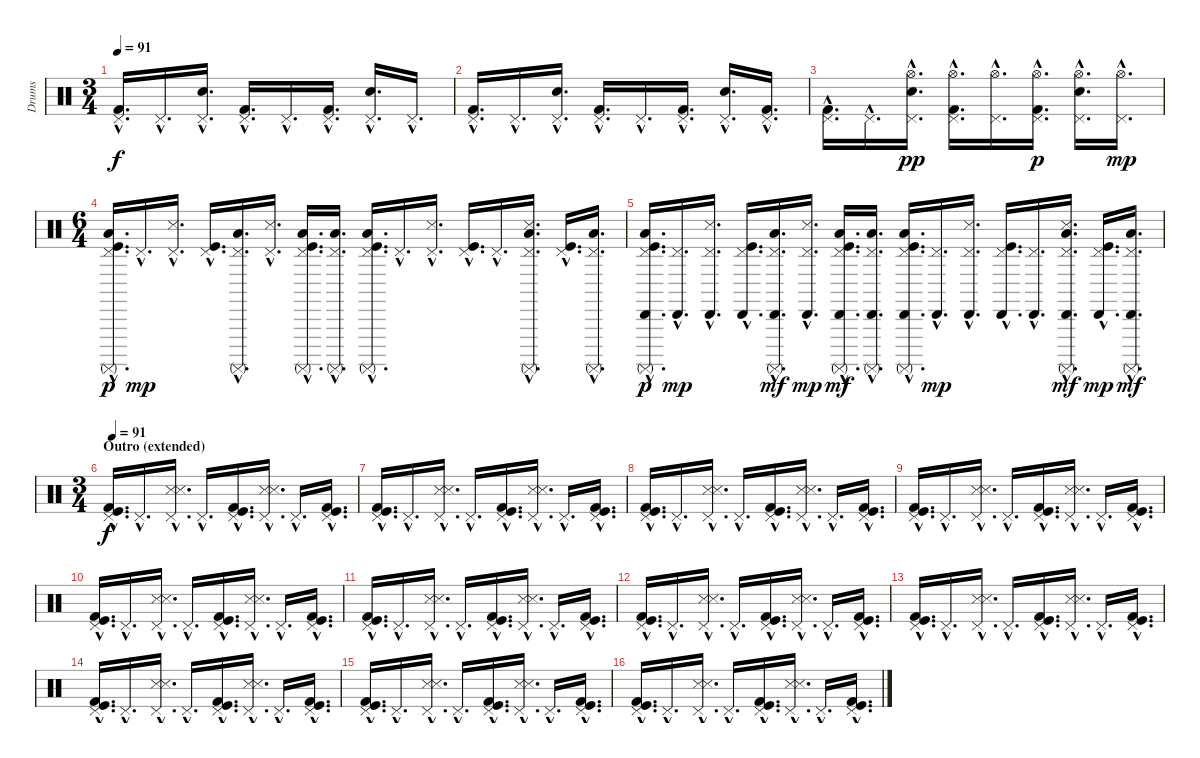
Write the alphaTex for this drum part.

\track ("Drums" "Drums") {instrument percussion}
\staff {score}
\articulation defaults
\ts (3 4)
\tempo 91
\clef neutral
\ks c
("Pedal Hi-Hat (hit)"{hac} "Kick (hit) 2"{hac}).16{d dy f} "Pedal Hi-Hat (hit)"{hac}.16{d} ("Pedal Hi-Hat (hit)"{hac} "Electric Snare (hit)"{hac}).16{d} ("Pedal Hi-Hat (hit)"{hac} "Kick (hit) 2"{hac}).16{d} "Pedal Hi-Hat (hit)"{hac}.16{d} ("Pedal Hi-Hat (hit)"{hac} "Kick (hit) 2"{hac}).16{d} ("Pedal Hi-Hat (hit)"{hac} "Electric Snare (hit)"{hac}).16{d} "Pedal Hi-Hat (hit)"{hac}.16{d} |
("Pedal Hi-Hat (hit)"{hac} "Kick (hit) 2"{hac}).16{d} "Pedal Hi-Hat (hit)"{hac}.16{d} ("Pedal Hi-Hat (hit)"{hac} "Electric Snare (hit)"{hac}).16{d} ("Pedal Hi-Hat (hit)"{hac} "Kick (hit) 2"{hac}).16{d} "Pedal Hi-Hat (hit)"{hac}.16{d} ("Pedal Hi-Hat (hit)"{hac} "Kick (hit) 2"{hac}).16{d} ("Pedal Hi-Hat (hit)"{hac} "Electric Snare (hit)"{hac}).16{d} ("Pedal Hi-Hat (hit)"{hac} "Kick (hit) 2"{hac}).16{d} |
("Pedal Hi-Hat (hit)"{hac} "Kick (hit) 2"{hac}).16{d} "Pedal Hi-Hat (hit)"{hac}.16{d} ("Pedal Hi-Hat (hit)"{hac} "Hi-Hat (open)"{hac} "Electric Snare (hit)"{hac}).16{d dy pp} ("Pedal Hi-Hat (hit)"{hac} "Hi-Hat (open)"{hac} "Kick (hit) 2"{hac}).16{d} ("Pedal Hi-Hat (hit)"{hac} "Hi-Hat (open)"{hac}).16{d} ("Pedal Hi-Hat (hit)"{hac} "Hi-Hat (open)"{hac} "Kick (hit) 2"{hac}).16{d dy p} ("Pedal Hi-Hat (hit)"{hac} "Hi-Hat (open)"{hac} "Electric Snare (hit)"{hac}).16{d} ("Pedal Hi-Hat (hit)"{hac} "Hi-Hat (open)"{hac}).16{d dy mp} |
\ts (6 4)
("Pedal Hi-Hat (hit)"{hac} "Kick (hit)"{hac} "Low Floor Tom (hit)"{hac} "Surdo (mute)"{hac}).16{d dy p} "Pedal Hi-Hat (hit)"{hac}.16{d dy mp} ("Pedal Hi-Hat (hit)"{hac} "Snare (side stick) 3"{hac}).16{d} ("Pedal Hi-Hat (hit)"{hac} "Kick (hit)"{hac}).16{d} ("Pedal Hi-Hat (hit)"{hac} "Surdo (mute)"{hac} "Low Floor Tom (hit)"{hac}).16{d} ("Pedal Hi-Hat (hit)"{hac} "Snare (side stick) 3"{hac}).16{d} ("Pedal Hi-Hat (hit)"{hac} "Kick (hit)"{hac} "Surdo (mute)"{hac} "Low Floor Tom (hit)"{hac}).16{d} ("Pedal Hi-Hat (hit)"{hac} "Surdo (mute)"{hac} "Low Floor Tom (hit)"{hac}).16{d} ("Pedal Hi-Hat (hit)"{hac} "Kick (hit)"{hac} "Surdo (mute)"{hac} "Low Floor Tom (hit)"{hac}).16{d} "Pedal Hi-Hat (hit)"{hac}.16{d} ("Pedal Hi-Hat (hit)"{hac} "Snare (side stick) 3"{hac}).16{d} ("Pedal Hi-Hat (hit)"{hac} "Kick (hit)"{hac}).16{d} "Pedal Hi-Hat (hit)"{hac}.16{d} ("Pedal Hi-Hat (hit)"{hac} "Snare (side stick) 3"{hac} "Surdo (mute)"{hac} "Low Floor Tom (hit)"{hac}).16{d} ("Pedal Hi-Hat (hit)"{hac} "Kick (hit)"{hac}).16{d} ("Pedal Hi-Hat (hit)"{hac} "Surdo (mute)"{hac} "Low Floor Tom (hit)"{hac}).16{d} |
("Pedal Hi-Hat (hit)"{hac} "Kick (hit)"{hac} "Cabasa (hit)"{hac} "Low Floor Tom (hit)"{hac} "Surdo (mute)"{hac}).16{d dy p} ("Pedal Hi-Hat (hit)"{hac} "Cabasa (hit)"{hac}).16{d dy mp} ("Pedal Hi-Hat (hit)"{hac} "Snare (side stick) 3"{hac} "Cabasa (hit)"{hac}).16{d} ("Pedal Hi-Hat (hit)"{hac} "Kick (hit)"{hac} "Cabasa (hit)"{hac}).16{d} ("Pedal Hi-Hat (hit)"{hac} "Cabasa (hit)"{hac} "Surdo (mute)"{hac} "Low Floor Tom (hit)"{hac}).16{d dy mf} ("Pedal Hi-Hat (hit)"{hac} "Snare (side stick) 3"{hac} "Cabasa (hit)"{hac}).16{d dy mp} ("Pedal Hi-Hat (hit)"{hac} "Kick (hit)"{hac} "Cabasa (hit)"{hac} "Surdo (mute)"{hac} "Low Floor Tom (hit)"{hac}).16{d dy mf} ("Pedal Hi-Hat (hit)"{hac} "Cabasa (hit)"{hac} "Surdo (mute)"{hac} "Low Floor Tom (hit)"{hac}).16{d} ("Pedal Hi-Hat (hit)"{hac} "Kick (hit)"{hac} "Cabasa (hit)"{hac} "Surdo (mute)"{hac} "Low Floor Tom (hit)"{hac}).16{d} ("Pedal Hi-Hat (hit)"{hac} "Cabasa (hit)"{hac}).16{d dy mp} ("Pedal Hi-Hat (hit)"{hac} "Snare (side stick) 3"{hac} "Cabasa (hit)"{hac}).16{d} ("Pedal Hi-Hat (hit)"{hac} "Kick (hit)"{hac} "Cabasa (hit)"{hac}).16{d} ("Pedal Hi-Hat (hit)"{hac} "Cabasa (hit)"{hac}).16{d} ("Pedal Hi-Hat (hit)"{hac} "Snare (side stick) 3"{hac} "Cabasa (hit)"{hac} "Surdo (mute)"{hac} "Low Floor Tom (hit)"{hac}).16{d dy mf} ("Pedal Hi-Hat (hit)"{hac} "Kick (hit)"{hac} "Cabasa (hit)"{hac}).16{d dy mp} ("Pedal Hi-Hat (hit)"{hac} "Cabasa (hit)"{hac} "Surdo (mute)"{hac} "Low Floor Tom (hit)"{hac}).16{d dy mf} |
\ts (3 4)
\section ("" "Outro (extended)")
\tempo 91
("Pedal Hi-Hat (hit)"{hac} "Kick (hit)"{hac} "Kick (hit) 2"{hac}).16{d dy f} "Pedal Hi-Hat (hit)"{hac}.16{d} ("Pedal Hi-Hat (hit)"{hac} "Snare (side stick) 3"{hac} "Snare (side stick) 3"{hac}).16{d} "Pedal Hi-Hat (hit)"{hac}.16{d} ("Pedal Hi-Hat (hit)"{hac} "Kick (hit)"{hac} "Kick (hit) 2"{hac}).16{d} ("Pedal Hi-Hat (hit)"{hac} "Snare (side stick) 3"{hac} "Snare (side stick) 3"{hac}).16{d} "Pedal Hi-Hat (hit)"{hac}.16{d} ("Pedal Hi-Hat (hit)"{hac} "Kick (hit)"{hac} "Kick (hit) 2"{hac}).16{d} |
("Pedal Hi-Hat (hit)"{hac} "Kick (hit)"{hac} "Kick (hit) 2"{hac}).16{d} "Pedal Hi-Hat (hit)"{hac}.16{d} ("Pedal Hi-Hat (hit)"{hac} "Snare (side stick) 3"{hac} "Snare (side stick) 3"{hac}).16{d} "Pedal Hi-Hat (hit)"{hac}.16{d} ("Pedal Hi-Hat (hit)"{hac} "Kick (hit)"{hac} "Kick (hit) 2"{hac}).16{d} ("Pedal Hi-Hat (hit)"{hac} "Snare (side stick) 3"{hac} "Snare (side stick) 3"{hac}).16{d} "Pedal Hi-Hat (hit)"{hac}.16{d} ("Pedal Hi-Hat (hit)"{hac} "Kick (hit)"{hac} "Kick (hit) 2"{hac}).16{d} |
("Pedal Hi-Hat (hit)"{hac} "Kick (hit)"{hac} "Kick (hit) 2"{hac}).16{d} "Pedal Hi-Hat (hit)"{hac}.16{d} ("Pedal Hi-Hat (hit)"{hac} "Snare (side stick) 3"{hac} "Snare (side stick) 3"{hac}).16{d} "Pedal Hi-Hat (hit)"{hac}.16{d} ("Pedal Hi-Hat (hit)"{hac} "Kick (hit)"{hac} "Kick (hit) 2"{hac}).16{d} ("Pedal Hi-Hat (hit)"{hac} "Snare (side stick) 3"{hac} "Snare (side stick) 3"{hac}).16{d} "Pedal Hi-Hat (hit)"{hac}.16{d} ("Pedal Hi-Hat (hit)"{hac} "Kick (hit)"{hac} "Kick (hit) 2"{hac}).16{d} |
("Pedal Hi-Hat (hit)"{hac} "Kick (hit)"{hac} "Kick (hit) 2"{hac}).16{d} "Pedal Hi-Hat (hit)"{hac}.16{d} ("Pedal Hi-Hat (hit)"{hac} "Snare (side stick) 3"{hac} "Snare (side stick) 3"{hac}).16{d} "Pedal Hi-Hat (hit)"{hac}.16{d} ("Pedal Hi-Hat (hit)"{hac} "Kick (hit)"{hac} "Kick (hit) 2"{hac}).16{d} ("Pedal Hi-Hat (hit)"{hac} "Snare (side stick) 3"{hac} "Snare (side stick) 3"{hac}).16{d} "Pedal Hi-Hat (hit)"{hac}.16{d} ("Pedal Hi-Hat (hit)"{hac} "Kick (hit)"{hac} "Kick (hit) 2"{hac}).16{d} |
("Pedal Hi-Hat (hit)"{hac} "Kick (hit)"{hac} "Kick (hit) 2"{hac}).16{d} "Pedal Hi-Hat (hit)"{hac}.16{d} ("Pedal Hi-Hat (hit)"{hac} "Snare (side stick) 3"{hac} "Snare (side stick) 3"{hac}).16{d} "Pedal Hi-Hat (hit)"{hac}.16{d} ("Pedal Hi-Hat (hit)"{hac} "Kick (hit)"{hac} "Kick (hit) 2"{hac}).16{d} ("Pedal Hi-Hat (hit)"{hac} "Snare (side stick) 3"{hac} "Snare (side stick) 3"{hac}).16{d} "Pedal Hi-Hat (hit)"{hac}.16{d} ("Pedal Hi-Hat (hit)"{hac} "Kick (hit)"{hac} "Kick (hit) 2"{hac}).16{d} |
("Pedal Hi-Hat (hit)"{hac} "Kick (hit)"{hac} "Kick (hit) 2"{hac}).16{d} "Pedal Hi-Hat (hit)"{hac}.16{d} ("Pedal Hi-Hat (hit)"{hac} "Snare (side stick) 3"{hac} "Snare (side stick) 3"{hac}).16{d} "Pedal Hi-Hat (hit)"{hac}.16{d} ("Pedal Hi-Hat (hit)"{hac} "Kick (hit)"{hac} "Kick (hit) 2"{hac}).16{d} ("Pedal Hi-Hat (hit)"{hac} "Snare (side stick) 3"{hac} "Snare (side stick) 3"{hac}).16{d} "Pedal Hi-Hat (hit)"{hac}.16{d} ("Pedal Hi-Hat (hit)"{hac} "Kick (hit)"{hac} "Kick (hit) 2"{hac}).16{d} |
("Pedal Hi-Hat (hit)"{hac} "Kick (hit)"{hac} "Kick (hit) 2"{hac}).16{d} "Pedal Hi-Hat (hit)"{hac}.16{d} ("Pedal Hi-Hat (hit)"{hac} "Snare (side stick) 3"{hac} "Snare (side stick) 3"{hac}).16{d} "Pedal Hi-Hat (hit)"{hac}.16{d} ("Pedal Hi-Hat (hit)"{hac} "Kick (hit)"{hac} "Kick (hit) 2"{hac}).16{d} ("Pedal Hi-Hat (hit)"{hac} "Snare (side stick) 3"{hac} "Snare (side stick) 3"{hac}).16{d} "Pedal Hi-Hat (hit)"{hac}.16{d} ("Pedal Hi-Hat (hit)"{hac} "Kick (hit)"{hac} "Kick (hit) 2"{hac}).16{d} |
("Pedal Hi-Hat (hit)"{hac} "Kick (hit)"{hac} "Kick (hit) 2"{hac}).16{d} "Pedal Hi-Hat (hit)"{hac}.16{d} ("Pedal Hi-Hat (hit)"{hac} "Snare (side stick) 3"{hac} "Snare (side stick) 3"{hac}).16{d} "Pedal Hi-Hat (hit)"{hac}.16{d} ("Pedal Hi-Hat (hit)"{hac} "Kick (hit)"{hac} "Kick (hit) 2"{hac}).16{d} ("Pedal Hi-Hat (hit)"{hac} "Snare (side stick) 3"{hac} "Snare (side stick) 3"{hac}).16{d} "Pedal Hi-Hat (hit)"{hac}.16{d} ("Pedal Hi-Hat (hit)"{hac} "Kick (hit)"{hac} "Kick (hit) 2"{hac}).16{d} |
("Pedal Hi-Hat (hit)"{hac} "Kick (hit)"{hac} "Kick (hit) 2"{hac}).16{d} "Pedal Hi-Hat (hit)"{hac}.16{d} ("Pedal Hi-Hat (hit)"{hac} "Snare (side stick) 3"{hac} "Snare (side stick) 3"{hac}).16{d} "Pedal Hi-Hat (hit)"{hac}.16{d} ("Pedal Hi-Hat (hit)"{hac} "Kick (hit)"{hac} "Kick (hit) 2"{hac}).16{d} ("Pedal Hi-Hat (hit)"{hac} "Snare (side stick) 3"{hac} "Snare (side stick) 3"{hac}).16{d} "Pedal Hi-Hat (hit)"{hac}.16{d} ("Pedal Hi-Hat (hit)"{hac} "Kick (hit)"{hac} "Kick (hit) 2"{hac}).16{d} |
("Pedal Hi-Hat (hit)"{hac} "Kick (hit)"{hac} "Kick (hit) 2"{hac}).16{d} "Pedal Hi-Hat (hit)"{hac}.16{d} ("Pedal Hi-Hat (hit)"{hac} "Snare (side stick) 3"{hac} "Snare (side stick) 3"{hac}).16{d} "Pedal Hi-Hat (hit)"{hac}.16{d} ("Pedal Hi-Hat (hit)"{hac} "Kick (hit)"{hac} "Kick (hit) 2"{hac}).16{d} ("Pedal Hi-Hat (hit)"{hac} "Snare (side stick) 3"{hac} "Snare (side stick) 3"{hac}).16{d} "Pedal Hi-Hat (hit)"{hac}.16{d} ("Pedal Hi-Hat (hit)"{hac} "Kick (hit)"{hac} "Kick (hit) 2"{hac}).16{d} |
("Pedal Hi-Hat (hit)"{hac} "Kick (hit)"{hac} "Kick (hit) 2"{hac}).16{d} "Pedal Hi-Hat (hit)"{hac}.16{d} ("Pedal Hi-Hat (hit)"{hac} "Snare (side stick) 3"{hac} "Snare (side stick) 3"{hac}).16{d} "Pedal Hi-Hat (hit)"{hac}.16{d} ("Pedal Hi-Hat (hit)"{hac} "Kick (hit)"{hac} "Kick (hit) 2"{hac}).16{d} ("Pedal Hi-Hat (hit)"{hac} "Snare (side stick) 3"{hac} "Snare (side stick) 3"{hac}).16{d} "Pedal Hi-Hat (hit)"{hac}.16{d} ("Pedal Hi-Hat (hit)"{hac} "Kick (hit)"{hac} "Kick (hit) 2"{hac}).16{d}
